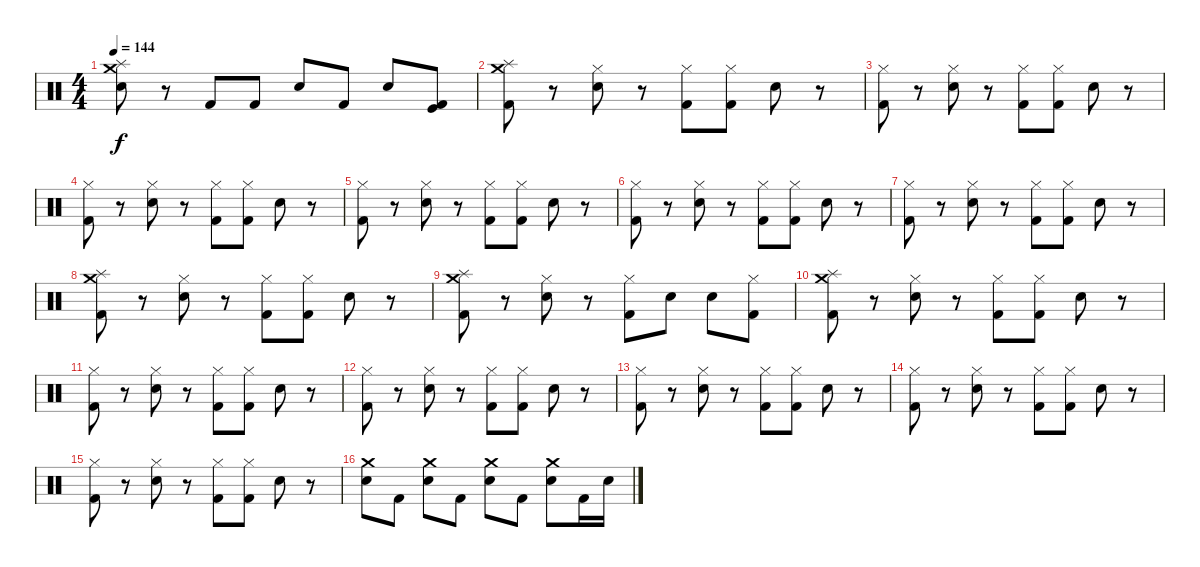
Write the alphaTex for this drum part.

\track "" {instrument percussion}
\staff {score}
\articulation defaults
\ts (4 4)
\tempo 144
\clef neutral
\ks c
("Splash (hit)" "Crash medium (hit)" "Snare (hit) 2").8{dy f} r.8 "Kick (hit) 2".8 "Kick (hit) 2".8 "Snare (hit) 2".8 "Kick (hit) 2".8 "Snare (hit) 2".8 ("Kick (hit) 2" "Kick (hit)").8 |
("Kick (hit) 2" "Splash (hit)" "Crash medium (hit)").8 r.8 ("Hi-Hat (closed)" "Snare (hit) 2").8 r.8 ("Hi-Hat (closed)" "Kick (hit) 2").8 ("Hi-Hat (closed)" "Kick (hit) 2").8 "Snare (hit) 2".8 r.8 |
("Hi-Hat (closed)" "Kick (hit) 2").8 r.8 ("Hi-Hat (closed)" "Snare (hit) 2").8 r.8 ("Hi-Hat (closed)" "Kick (hit) 2").8 ("Hi-Hat (closed)" "Kick (hit) 2").8 "Snare (hit) 2".8 r.8 |
("Hi-Hat (closed)" "Kick (hit) 2").8 r.8 ("Hi-Hat (closed)" "Snare (hit) 2").8 r.8 ("Hi-Hat (closed)" "Kick (hit) 2").8 ("Hi-Hat (closed)" "Kick (hit) 2").8 "Snare (hit) 2".8 r.8 |
("Hi-Hat (closed)" "Kick (hit) 2").8 r.8 ("Hi-Hat (closed)" "Snare (hit) 2").8 r.8 ("Hi-Hat (closed)" "Kick (hit) 2").8 ("Hi-Hat (closed)" "Kick (hit) 2").8 "Snare (hit) 2".8 r.8 |
("Hi-Hat (closed)" "Kick (hit) 2").8 r.8 ("Hi-Hat (closed)" "Snare (hit) 2").8 r.8 ("Hi-Hat (closed)" "Kick (hit) 2").8 ("Hi-Hat (closed)" "Kick (hit) 2").8 "Snare (hit) 2".8 r.8 |
("Hi-Hat (closed)" "Kick (hit) 2").8 r.8 ("Hi-Hat (closed)" "Snare (hit) 2").8 r.8 ("Hi-Hat (closed)" "Kick (hit) 2").8 ("Hi-Hat (closed)" "Kick (hit) 2").8 "Snare (hit) 2".8 r.8 |
("Splash (hit)" "Crash medium (hit)" "Kick (hit) 2").8 r.8 ("Hi-Hat (closed)" "Snare (hit) 2").8 r.8 ("Hi-Hat (closed)" "Kick (hit) 2").8 ("Hi-Hat (closed)" "Kick (hit) 2").8 "Snare (hit) 2".8 r.8 |
("Crash medium (hit)" "Splash (hit)" "Kick (hit) 2").8 r.8 ("Hi-Hat (closed)" "Snare (hit) 2").8 r.8 ("Hi-Hat (closed)" "Kick (hit) 2").8 "Snare (hit) 2".8 "Snare (hit) 2".8 ("Hi-Hat (closed)" "Kick (hit) 2").8 |
("Kick (hit) 2" "Splash (hit)" "Crash medium (hit)").8 r.8 ("Hi-Hat (closed)" "Snare (hit) 2").8 r.8 ("Hi-Hat (closed)" "Kick (hit) 2").8 ("Hi-Hat (closed)" "Kick (hit) 2").8 "Snare (hit) 2".8 r.8 |
("Hi-Hat (closed)" "Kick (hit) 2").8 r.8 ("Hi-Hat (closed)" "Snare (hit) 2").8 r.8 ("Hi-Hat (closed)" "Kick (hit) 2").8 ("Hi-Hat (closed)" "Kick (hit) 2").8 "Snare (hit) 2".8 r.8 |
("Hi-Hat (closed)" "Kick (hit) 2").8 r.8 ("Hi-Hat (closed)" "Snare (hit) 2").8 r.8 ("Hi-Hat (closed)" "Kick (hit) 2").8 ("Hi-Hat (closed)" "Kick (hit) 2").8 "Snare (hit) 2".8 r.8 |
("Hi-Hat (closed)" "Kick (hit) 2").8 r.8 ("Hi-Hat (closed)" "Snare (hit) 2").8 r.8 ("Hi-Hat (closed)" "Kick (hit) 2").8 ("Hi-Hat (closed)" "Kick (hit) 2").8 "Snare (hit) 2".8 r.8 |
("Hi-Hat (closed)" "Kick (hit) 2").8 r.8 ("Hi-Hat (closed)" "Snare (hit) 2").8 r.8 ("Hi-Hat (closed)" "Kick (hit) 2").8 ("Hi-Hat (closed)" "Kick (hit) 2").8 "Snare (hit) 2".8 r.8 |
("Hi-Hat (closed)" "Kick (hit) 2").8 r.8 ("Hi-Hat (closed)" "Snare (hit) 2").8 r.8 ("Hi-Hat (closed)" "Kick (hit) 2").8 ("Hi-Hat (closed)" "Kick (hit) 2").8 "Snare (hit) 2".8 r.8 |
("Crash medium (hit)" "Snare (hit) 2").8 "Kick (hit) 2".8 ("Crash medium (hit)" "Snare (hit) 2").8 "Kick (hit) 2".8 ("Crash medium (hit)" "Snare (hit) 2").8 "Kick (hit) 2".8 ("Crash medium (hit)" "Snare (hit) 2").8 "Kick (hit) 2".16 "Snare (hit) 2".16
